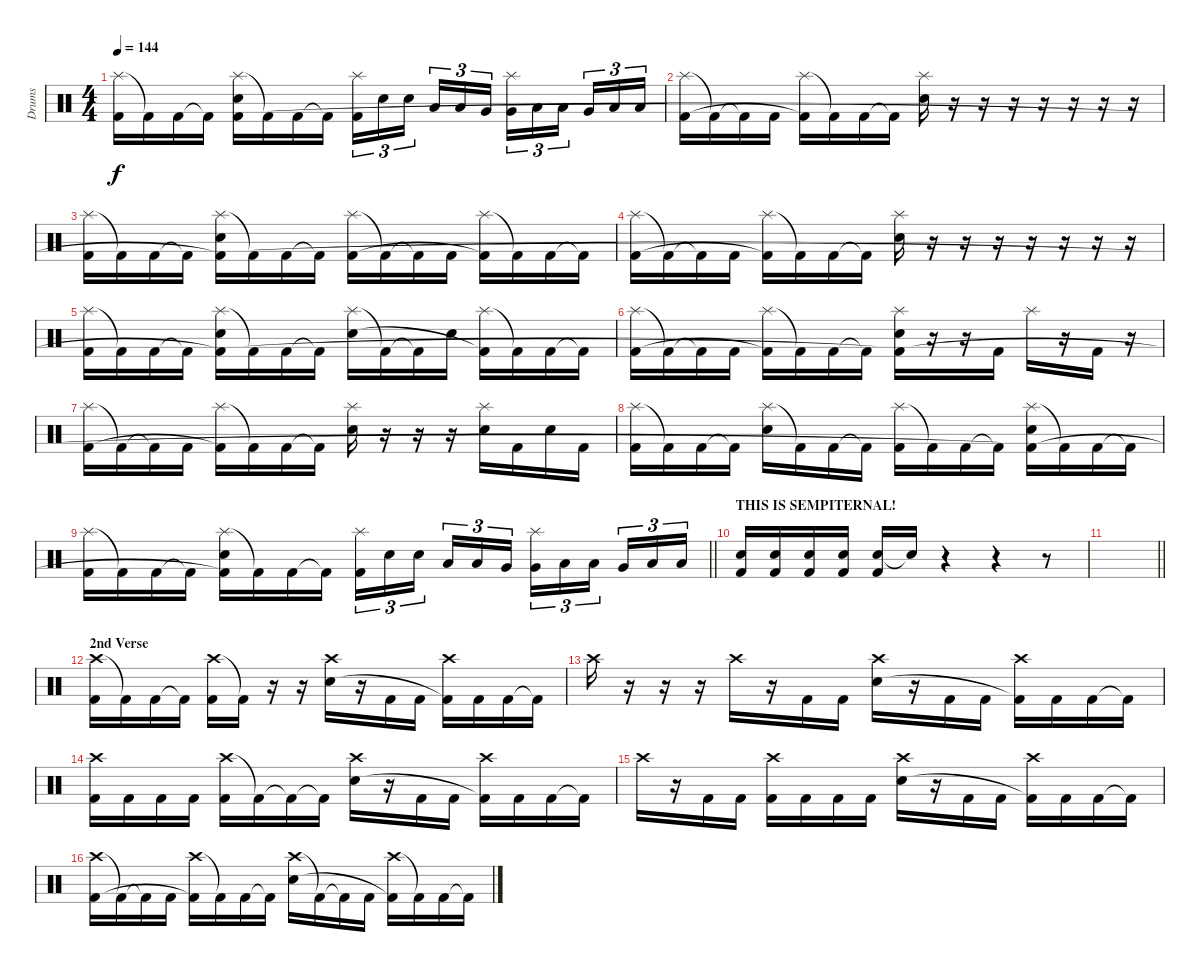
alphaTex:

\track ("Drums" "Drums") {instrument percussion}
\staff {score}
\articulation defaults
\ts (4 4)
\tempo 144
\clef neutral
\ks c
("Splash (hit)" "Kick (hit) 2").16{dy f} "Kick (hit) 2"{t}.16 "Kick (hit) 2".16 "Kick (hit) 2"{t}.16 ("Splash (hit)" "Electric Snare (hit)" "Kick (hit) 2"{t}).16 "Kick (hit) 2"{t}.16 "Kick (hit) 2".16 "Kick (hit) 2"{t}.16 ("Splash (hit)" "Kick (hit) 2").16{tu (3 2)} "Electric Snare (hit)".16{tu (3 2)} "Electric Snare (hit)".16{tu (3 2) beam splitsecondary} "Low Tom (hit)".16{tu (3 2)} "Low Tom (hit)".16{tu (3 2)} "Very Low Tom (hit)".16{tu (3 2)} ("Splash (hit)" "Very Low Tom (hit)").16{tu (3 2)} "Low Floor Tom (hit)".16{tu (3 2)} "Low Floor Tom (hit)".16{tu (3 2) beam splitsecondary} "Very Low Tom (hit)".16{tu (3 2)} "Low Floor Tom (hit)".16{tu (3 2)} "Low Floor Tom (hit)".16{tu (3 2)} |
("Splash (hit)" "Kick (hit) 2").16 "Kick (hit) 2"{t}.16 "Kick (hit) 2"{t}.16 "Kick (hit) 2".16 ("Splash (hit)" "Kick (hit) 2"{t}).16 "Kick (hit) 2"{t}.16 "Kick (hit) 2".16 "Kick (hit) 2"{t}.16 ("Splash (hit)" "Electric Snare (hit)").16 r.16 r.16 r.16 r.16 r.16 r.16 r.16 |
("Splash (hit)" "Kick (hit) 2").16 "Kick (hit) 2"{t}.16 "Kick (hit) 2".16 "Kick (hit) 2"{t}.16 ("Splash (hit)" "Electric Snare (hit)" "Kick (hit) 2"{t}).16 "Kick (hit) 2"{t}.16 "Kick (hit) 2".16 "Kick (hit) 2"{t}.16 ("Splash (hit)" "Kick (hit) 2").16 "Kick (hit) 2"{t}.16 "Kick (hit) 2"{t}.16 "Kick (hit) 2".16 ("Splash (hit)" "Kick (hit) 2"{t}).16 "Kick (hit) 2"{t}.16 "Kick (hit) 2".16 "Kick (hit) 2"{t}.16 |
("Splash (hit)" "Kick (hit) 2").16 "Kick (hit) 2"{t}.16 "Kick (hit) 2"{t}.16 "Kick (hit) 2".16 ("Splash (hit)" "Kick (hit) 2"{t}).16 "Kick (hit) 2"{t}.16 "Kick (hit) 2".16 "Kick (hit) 2"{t}.16 ("Splash (hit)" "Electric Snare (hit)").16 r.16 r.16 r.16 r.16 r.16 r.16 r.16 |
("Splash (hit)" "Kick (hit) 2").16 "Kick (hit) 2"{t}.16 "Kick (hit) 2".16 "Kick (hit) 2"{t}.16 ("Splash (hit)" "Electric Snare (hit)" "Kick (hit) 2"{t}).16 "Kick (hit) 2"{t}.16 "Kick (hit) 2".16 "Kick (hit) 2"{t}.16 ("Splash (hit)" "Electric Snare (hit)").16 "Kick (hit) 2"{t}.16 "Kick (hit) 2"{t}.16 "Electric Snare (hit)".16 ("Splash (hit)" "Kick (hit) 2"{t}).16 "Kick (hit) 2"{t}.16 "Kick (hit) 2".16 "Kick (hit) 2"{t}.16 |
("Splash (hit)" "Kick (hit) 2").16 "Kick (hit) 2"{t}.16 "Kick (hit) 2"{t}.16 "Kick (hit) 2".16 ("Splash (hit)" "Kick (hit) 2"{t}).16 "Kick (hit) 2"{t}.16 "Kick (hit) 2".16 "Kick (hit) 2"{t}.16 ("Splash (hit)" "Electric Snare (hit)" "Kick (hit) 2"{t}).16 r.16 r.16 "Kick (hit) 2".16 "Splash (hit)".16 r.16 "Kick (hit) 2".16 r.16 |
("Splash (hit)" "Kick (hit) 2").16 "Kick (hit) 2"{t}.16 "Kick (hit) 2"{t}.16 "Kick (hit) 2".16 ("Splash (hit)" "Kick (hit) 2"{t}).16 "Kick (hit) 2"{t}.16 "Kick (hit) 2".16 "Kick (hit) 2"{t}.16 ("Splash (hit)" "Electric Snare (hit)").16 r.16 r.16 r.16 ("Splash (hit)" "Electric Snare (hit)").16 "Kick (hit) 2".16 "Electric Snare (hit)".16 "Kick (hit) 2".16 |
("Splash (hit)" "Kick (hit) 2").16 "Kick (hit) 2"{t}.16 "Kick (hit) 2".16 "Kick (hit) 2"{t}.16 ("Splash (hit)" "Electric Snare (hit)").16 "Kick (hit) 2"{t}.16 "Kick (hit) 2".16 "Kick (hit) 2"{t}.16 ("Splash (hit)" "Kick (hit) 2").16 "Kick (hit) 2"{t}.16 "Kick (hit) 2".16 "Kick (hit) 2"{t}.16 ("Splash (hit)" "Electric Snare (hit)" "Kick (hit) 2"{t}).16 "Kick (hit) 2"{t}.16 "Kick (hit) 2".16 "Kick (hit) 2"{t}.16 |
\barLineRight lightlight
("Splash (hit)" "Kick (hit) 2").16 "Kick (hit) 2"{t}.16 "Kick (hit) 2".16 "Kick (hit) 2"{t}.16 ("Splash (hit)" "Electric Snare (hit)" "Kick (hit) 2"{t}).16 "Kick (hit) 2"{t}.16 "Kick (hit) 2".16 "Kick (hit) 2"{t}.16 ("Splash (hit)" "Kick (hit) 2").16{tu (3 2)} "Electric Snare (hit)".16{tu (3 2)} "Electric Snare (hit)".16{tu (3 2) beam splitsecondary} "Low Tom (hit)".16{tu (3 2)} "Low Tom (hit)".16{tu (3 2)} "Very Low Tom (hit)".16{tu (3 2)} ("Splash (hit)" "Very Low Tom (hit)").16{tu (3 2)} "Low Floor Tom (hit)".16{tu (3 2)} "Low Floor Tom (hit)".16{tu (3 2) beam splitsecondary} "Very Low Tom (hit)".16{tu (3 2)} "Low Floor Tom (hit)".16{tu (3 2)} "Low Floor Tom (hit)".16{tu (3 2)} |
\section ("" "THIS IS SEMPITERNAL!")
("Electric Snare (hit)" "Kick (hit) 2").16 ("Electric Snare (hit)" "Kick (hit) 2").16 ("Electric Snare (hit)" "Kick (hit) 2").16 ("Electric Snare (hit)" "Kick (hit) 2").16 ("Electric Snare (hit)" "Kick (hit) 2").16 "Snare (hit)"{t}.16 r.4 r.4 r.8 |
\barLineRight lightlight
|
\section ("" "2nd Verse")
("Crash high (hit)" "Kick (hit) 2").16 "Kick (hit) 2"{t}.16 "Kick (hit) 2".16 "Kick (hit) 2"{t}.16 ("Crash high (hit)" "Kick (hit) 2").16 "Kick (hit) 2"{t}.16 r.16 r.16 ("Crash high (hit)" "Electric Snare (hit)").16 r.16 "Kick (hit) 2".16 "Kick (hit) 2".16 ("Crash high (hit)" "Kick (hit) 2"{t}).16 "Kick (hit) 2".16 "Kick (hit) 2".16 "Kick (hit) 2"{t}.16 |
"Crash high (hit)".16 r.16 r.16 r.16 "Crash high (hit)".16 r.16 "Kick (hit) 2".16 "Kick (hit) 2".16 ("Crash high (hit)" "Electric Snare (hit)").16 r.16 "Kick (hit) 2".16 "Kick (hit) 2".16 ("Crash high (hit)" "Kick (hit) 2"{t}).16 "Kick (hit) 2".16 "Kick (hit) 2".16 "Kick (hit) 2"{t}.16 |
("Crash high (hit)" "Kick (hit) 2").16 "Kick (hit) 2".16 "Kick (hit) 2".16 "Kick (hit) 2".16 ("Crash high (hit)" "Kick (hit) 2").16 "Kick (hit) 2"{t}.16 "Kick (hit) 2"{t}.16 "Kick (hit) 2"{t}.16 ("Crash high (hit)" "Electric Snare (hit)").16 r.16 "Kick (hit) 2".16 "Kick (hit) 2".16 ("Crash high (hit)" "Kick (hit) 2"{t}).16 "Kick (hit) 2".16 "Kick (hit) 2".16 "Kick (hit) 2"{t}.16 |
"Crash high (hit)".16 r.16 "Kick (hit) 2".16 "Kick (hit) 2".16 ("Crash high (hit)" "Kick (hit) 2").16 "Kick (hit) 2".16 "Kick (hit) 2".16 "Kick (hit) 2".16 ("Crash high (hit)" "Electric Snare (hit)").16 r.16 "Kick (hit) 2".16 "Kick (hit) 2".16 ("Crash high (hit)" "Kick (hit) 2"{t}).16 "Kick (hit) 2".16 "Kick (hit) 2".16 "Kick (hit) 2"{t}.16 |
("Crash high (hit)" "Kick (hit) 2").16 "Kick (hit) 2"{t}.16 "Kick (hit) 2"{t}.16 "Kick (hit) 2".16 ("Crash high (hit)" "Kick (hit) 2"{t}).16 "Kick (hit) 2"{t}.16 "Kick (hit) 2".16 "Kick (hit) 2"{t}.16 ("Crash high (hit)" "Electric Snare (hit)").16 "Kick (hit) 2"{t}.16 "Kick (hit) 2"{t}.16 "Kick (hit) 2".16 ("Crash high (hit)" "Kick (hit) 2"{t}).16 "Kick (hit) 2"{t}.16 "Kick (hit) 2".16 "Kick (hit) 2"{t}.16
